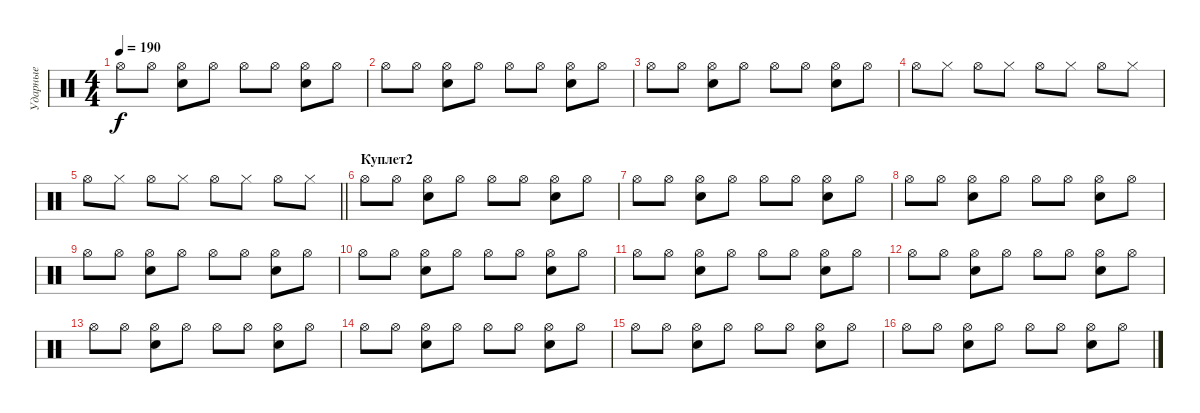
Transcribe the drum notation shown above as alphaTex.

\track ("Ударные" "Ударные") {instrument percussion}
\staff {score}
\articulation defaults
\ts (4 4)
\tempo 190
\clef neutral
\ks c "Hi-Hat (open)".8{dy f} "Hi-Hat (open)".8
("Hi-Hat (open)" "Electric Snare (hit)").8 "Hi-Hat (open)".8 "Hi-Hat (open)".8 "Hi-Hat (open)".8 ("Hi-Hat (open)" "Electric Snare (hit)").8 "Hi-Hat (open)".8 |
"Hi-Hat (open)".8 "Hi-Hat (open)".8 ("Hi-Hat (open)" "Electric Snare (hit)").8 "Hi-Hat (open)".8 "Hi-Hat (open)".8 "Hi-Hat (open)".8 ("Hi-Hat (open)" "Electric Snare (hit)").8 "Hi-Hat (open)".8 |
"Hi-Hat (open)".8 "Hi-Hat (open)".8 ("Hi-Hat (open)" "Electric Snare (hit)").8 "Hi-Hat (open)".8 "Hi-Hat (open)".8 "Hi-Hat (open)".8 ("Hi-Hat (open)" "Electric Snare (hit)").8 "Hi-Hat (open)".8 |
"Hi-Hat (open)".8 "Hi-Hat (closed)".8 "Hi-Hat (open)".8 "Hi-Hat (closed)".8 "Hi-Hat (open)".8 "Hi-Hat (closed)".8 "Hi-Hat (open)".8 "Hi-Hat (closed)".8 |
\barLineRight lightlight "Hi-Hat (open)".8 "Hi-Hat (closed)".8 "Hi-Hat (open)".8 "Hi-Hat (closed)".8 "Hi-Hat (open)".8 "Hi-Hat (closed)".8 "Hi-Hat (open)".8 "Hi-Hat (closed)".8
|
\section ("" "Куплет2")
"Hi-Hat (open)".8 "Hi-Hat (open)".8 ("Hi-Hat (open)" "Electric Snare (hit)").8 "Hi-Hat (open)".8 "Hi-Hat (open)".8 "Hi-Hat (open)".8 ("Hi-Hat (open)" "Electric Snare (hit)").8 "Hi-Hat (open)".8 |
"Hi-Hat (open)".8 "Hi-Hat (open)".8 ("Hi-Hat (open)" "Electric Snare (hit)").8 "Hi-Hat (open)".8 "Hi-Hat (open)".8 "Hi-Hat (open)".8 ("Hi-Hat (open)" "Electric Snare (hit)").8 "Hi-Hat (open)".8 |
"Hi-Hat (open)".8 "Hi-Hat (open)".8 ("Hi-Hat (open)" "Electric Snare (hit)").8 "Hi-Hat (open)".8 "Hi-Hat (open)".8 "Hi-Hat (open)".8 ("Hi-Hat (open)" "Electric Snare (hit)").8 "Hi-Hat (open)".8 |
"Hi-Hat (open)".8 "Hi-Hat (open)".8 ("Hi-Hat (open)" "Electric Snare (hit)").8 "Hi-Hat (open)".8 "Hi-Hat (open)".8 "Hi-Hat (open)".8 ("Hi-Hat (open)" "Electric Snare (hit)").8 "Hi-Hat (open)".8 |
"Hi-Hat (open)".8 "Hi-Hat (open)".8 ("Hi-Hat (open)" "Electric Snare (hit)").8 "Hi-Hat (open)".8 "Hi-Hat (open)".8 "Hi-Hat (open)".8 ("Hi-Hat (open)" "Electric Snare (hit)").8 "Hi-Hat (open)".8 |
"Hi-Hat (open)".8 "Hi-Hat (open)".8 ("Hi-Hat (open)" "Electric Snare (hit)").8 "Hi-Hat (open)".8 "Hi-Hat (open)".8 "Hi-Hat (open)".8 ("Hi-Hat (open)" "Electric Snare (hit)").8 "Hi-Hat (open)".8 |
"Hi-Hat (open)".8 "Hi-Hat (open)".8 ("Hi-Hat (open)" "Electric Snare (hit)").8 "Hi-Hat (open)".8 "Hi-Hat (open)".8 "Hi-Hat (open)".8 ("Hi-Hat (open)" "Electric Snare (hit)").8 "Hi-Hat (open)".8 |
"Hi-Hat (open)".8 "Hi-Hat (open)".8 ("Hi-Hat (open)" "Electric Snare (hit)").8 "Hi-Hat (open)".8 "Hi-Hat (open)".8 "Hi-Hat (open)".8 ("Hi-Hat (open)" "Electric Snare (hit)").8 "Hi-Hat (open)".8 |
"Hi-Hat (open)".8 "Hi-Hat (open)".8 ("Hi-Hat (open)" "Electric Snare (hit)").8 "Hi-Hat (open)".8 "Hi-Hat (open)".8 "Hi-Hat (open)".8 ("Hi-Hat (open)" "Electric Snare (hit)").8 "Hi-Hat (open)".8 |
"Hi-Hat (open)".8 "Hi-Hat (open)".8 ("Hi-Hat (open)" "Electric Snare (hit)").8 "Hi-Hat (open)".8 "Hi-Hat (open)".8 "Hi-Hat (open)".8 ("Hi-Hat (open)" "Electric Snare (hit)").8 "Hi-Hat (open)".8 |
"Hi-Hat (open)".8 "Hi-Hat (open)".8 ("Hi-Hat (open)" "Electric Snare (hit)").8 "Hi-Hat (open)".8 "Hi-Hat (open)".8 "Hi-Hat (open)".8 ("Hi-Hat (open)" "Electric Snare (hit)").8 "Hi-Hat (open)".8
